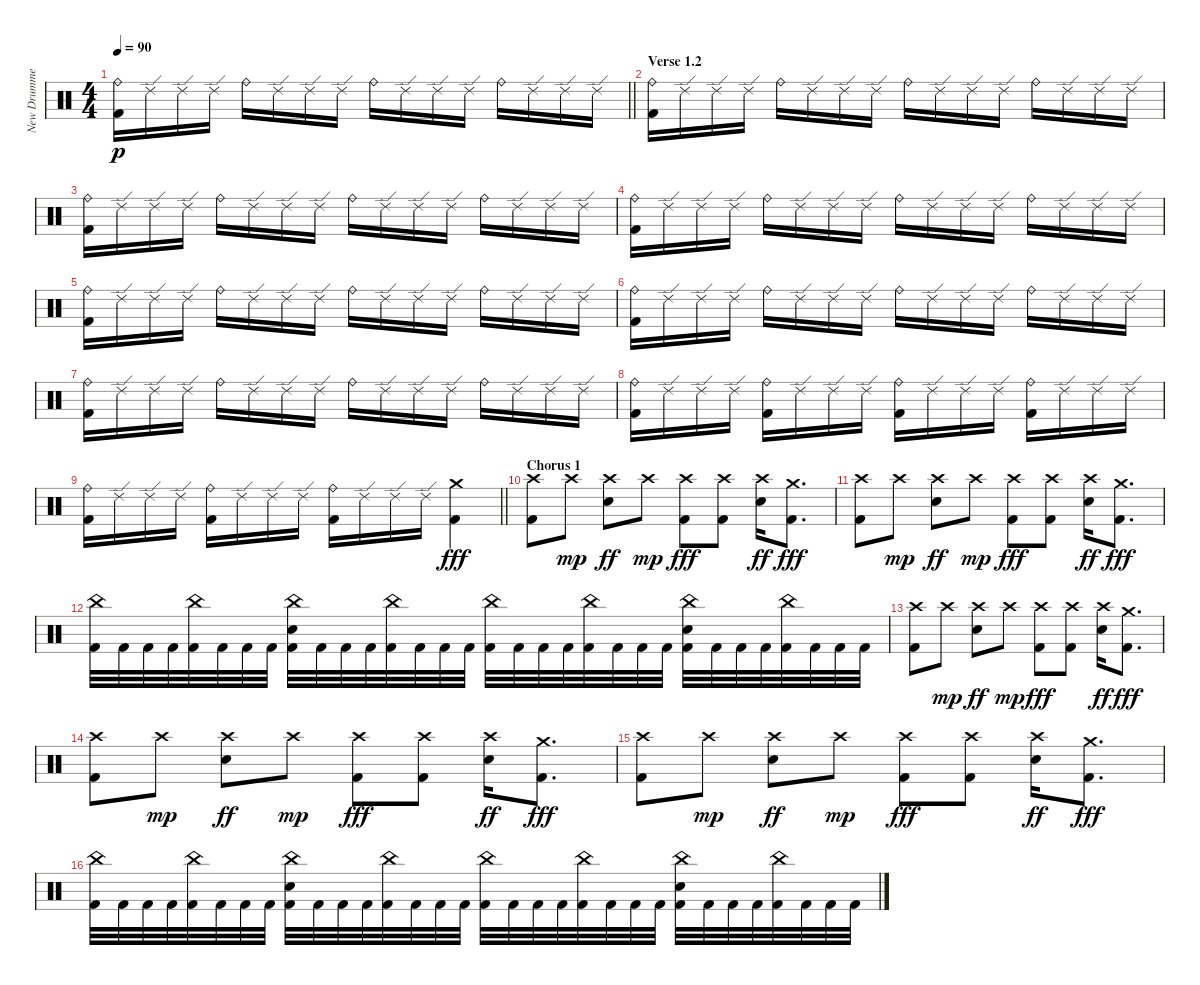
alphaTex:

\track ("New Drummer" "New Drumme") {instrument percussion}
\staff {score}
\articulation defaults
\ts (4 4)
\tempo 90
\clef neutral
\barLineRight lightlight
\ks c
("Ride (bell)" "Kick (hit) 2").16{dy p} "Ride (edge) 2".16 "Ride (edge) 2".16 "Ride (edge) 2".16 "Ride (bell)".16 "Ride (edge) 2".16 "Ride (edge) 2".16 "Ride (edge) 2".16 "Ride (bell)".16 "Ride (edge) 2".16 "Ride (edge) 2".16 "Ride (edge) 2".16 "Ride (bell)".16 "Ride (edge) 2".16 "Ride (edge) 2".16 "Ride (edge) 2".16 |
\section ("" "Verse 1.2")
("Ride (bell)" "Kick (hit) 2").16 "Ride (edge) 2".16 "Ride (edge) 2".16 "Ride (edge) 2".16 "Ride (bell)".16 "Ride (edge) 2".16 "Ride (edge) 2".16 "Ride (edge) 2".16 "Ride (bell)".16 "Ride (edge) 2".16 "Ride (edge) 2".16 "Ride (edge) 2".16 "Ride (bell)".16 "Ride (edge) 2".16 "Ride (edge) 2".16 "Ride (edge) 2".16 |
("Ride (bell)" "Kick (hit) 2").16 "Ride (edge) 2".16 "Ride (edge) 2".16 "Ride (edge) 2".16 "Ride (bell)".16 "Ride (edge) 2".16 "Ride (edge) 2".16 "Ride (edge) 2".16 "Ride (bell)".16 "Ride (edge) 2".16 "Ride (edge) 2".16 "Ride (edge) 2".16 "Ride (bell)".16 "Ride (edge) 2".16 "Ride (edge) 2".16 "Ride (edge) 2".16 |
("Ride (bell)" "Kick (hit) 2").16 "Ride (edge) 2".16 "Ride (edge) 2".16 "Ride (edge) 2".16 "Ride (bell)".16 "Ride (edge) 2".16 "Ride (edge) 2".16 "Ride (edge) 2".16 "Ride (bell)".16 "Ride (edge) 2".16 "Ride (edge) 2".16 "Ride (edge) 2".16 "Ride (bell)".16 "Ride (edge) 2".16 "Ride (edge) 2".16 "Ride (edge) 2".16 |
("Ride (bell)" "Kick (hit) 2").16 "Ride (edge) 2".16 "Ride (edge) 2".16 "Ride (edge) 2".16 "Ride (bell)".16 "Ride (edge) 2".16 "Ride (edge) 2".16 "Ride (edge) 2".16 "Ride (bell)".16 "Ride (edge) 2".16 "Ride (edge) 2".16 "Ride (edge) 2".16 "Ride (bell)".16 "Ride (edge) 2".16 "Ride (edge) 2".16 "Ride (edge) 2".16 |
("Ride (bell)" "Kick (hit) 2").16 "Ride (edge) 2".16 "Ride (edge) 2".16 "Ride (edge) 2".16 "Ride (bell)".16 "Ride (edge) 2".16 "Ride (edge) 2".16 "Ride (edge) 2".16 "Ride (bell)".16 "Ride (edge) 2".16 "Ride (edge) 2".16 "Ride (edge) 2".16 "Ride (bell)".16 "Ride (edge) 2".16 "Ride (edge) 2".16 "Ride (edge) 2".16 |
("Ride (bell)" "Kick (hit) 2").16 "Ride (edge) 2".16 "Ride (edge) 2".16 "Ride (edge) 2".16 "Ride (bell)".16 "Ride (edge) 2".16 "Ride (edge) 2".16 "Ride (edge) 2".16 "Ride (bell)".16 "Ride (edge) 2".16 "Ride (edge) 2".16 "Ride (edge) 2".16 "Ride (bell)".16 "Ride (edge) 2".16 "Ride (edge) 2".16 "Ride (edge) 2".16 |
("Ride (bell)" "Kick (hit) 2").16 "Ride (edge) 2".16 "Ride (edge) 2".16 "Ride (edge) 2".16 ("Ride (bell)" "Kick (hit) 2").16 "Ride (edge) 2".16 "Ride (edge) 2".16 "Ride (edge) 2".16 ("Ride (bell)" "Kick (hit) 2").16 "Ride (edge) 2".16 "Ride (edge) 2".16 "Ride (edge) 2".16 ("Ride (bell)" "Kick (hit) 2").16 "Ride (edge) 2".16 "Ride (edge) 2".16 "Ride (edge) 2".16 |
\barLineRight lightlight
("Ride (bell)" "Kick (hit) 2").16 "Ride (edge) 2".16 "Ride (edge) 2".16 "Ride (edge) 2".16 ("Ride (bell)" "Kick (hit) 2").16 "Ride (edge) 2".16 "Ride (edge) 2".16 "Ride (edge) 2".16 ("Ride (bell)" "Kick (hit) 2").16 "Ride (edge) 2".16 "Ride (edge) 2".16 "Ride (edge) 2".16 ("Crash medium (hit)" "Kick (hit) 2").4{dy fff} |
\section ("" "Chorus 1")
("Crash high (hit)" "Kick (hit) 2").8 "Crash high (hit)".8{dy mp} ("Crash high (hit)" "Electric Snare (hit)").8{dy ff} "Crash high (hit)".8{dy mp} ("Crash high (hit)" "Kick (hit) 2").8{dy fff} ("Crash high (hit)" "Kick (hit) 2").8 ("Crash high (hit)" "Electric Snare (hit)").16{dy ff} ("Crash medium (hit)" "Kick (hit) 2").8{d dy fff} |
("Crash high (hit)" "Kick (hit) 2").8 "Crash high (hit)".8{dy mp} ("Crash high (hit)" "Electric Snare (hit)").8{dy ff} "Crash high (hit)".8{dy mp} ("Crash high (hit)" "Kick (hit) 2").8{dy fff} ("Crash high (hit)" "Kick (hit) 2").8 ("Crash high (hit)" "Electric Snare (hit)").16{dy ff} ("Crash medium (hit)" "Kick (hit) 2").8{d dy fff} |
("China (hit)" "Kick (hit) 2").32 "Kick (hit) 2".32 "Kick (hit) 2".32 "Kick (hit) 2".32 ("China (hit)" "Kick (hit) 2").32 "Kick (hit) 2".32 "Kick (hit) 2".32 "Kick (hit) 2".32 ("China (hit)" "Electric Snare (hit)" "Kick (hit) 2").32 "Kick (hit) 2".32 "Kick (hit) 2".32 "Kick (hit) 2".32 ("China (hit)" "Kick (hit) 2").32 "Kick (hit) 2".32 "Kick (hit) 2".32 "Kick (hit) 2".32 ("China (hit)" "Kick (hit) 2").32 "Kick (hit) 2".32 "Kick (hit) 2".32 "Kick (hit) 2".32 ("China (hit)" "Kick (hit) 2").32 "Kick (hit) 2".32 "Kick (hit) 2".32 "Kick (hit) 2".32 ("China (hit)" "Electric Snare (hit)" "Kick (hit) 2").32 "Kick (hit) 2".32 "Kick (hit) 2".32 "Kick (hit) 2".32 ("China (hit)" "Kick (hit) 2").32 "Kick (hit) 2".32 "Kick (hit) 2".32 "Kick (hit) 2".32 |
("Crash high (hit)" "Kick (hit) 2").8 "Crash high (hit)".8{dy mp} ("Crash high (hit)" "Electric Snare (hit)").8{dy ff} "Crash high (hit)".8{dy mp} ("Crash high (hit)" "Kick (hit) 2").8{dy fff} ("Crash high (hit)" "Kick (hit) 2").8 ("Crash high (hit)" "Electric Snare (hit)").16{dy ff} ("Crash medium (hit)" "Kick (hit) 2").8{d dy fff} |
("Crash high (hit)" "Kick (hit) 2").8 "Crash high (hit)".8{dy mp} ("Crash high (hit)" "Electric Snare (hit)").8{dy ff} "Crash high (hit)".8{dy mp} ("Crash high (hit)" "Kick (hit) 2").8{dy fff} ("Crash high (hit)" "Kick (hit) 2").8 ("Crash high (hit)" "Electric Snare (hit)").16{dy ff} ("Crash medium (hit)" "Kick (hit) 2").8{d dy fff} |
("Crash high (hit)" "Kick (hit) 2").8 "Crash high (hit)".8{dy mp} ("Crash high (hit)" "Electric Snare (hit)").8{dy ff} "Crash high (hit)".8{dy mp} ("Crash high (hit)" "Kick (hit) 2").8{dy fff} ("Crash high (hit)" "Kick (hit) 2").8 ("Crash high (hit)" "Electric Snare (hit)").16{dy ff} ("Crash medium (hit)" "Kick (hit) 2").8{d dy fff} |
("China (hit)" "Kick (hit) 2").32 "Kick (hit) 2".32 "Kick (hit) 2".32 "Kick (hit) 2".32 ("China (hit)" "Kick (hit) 2").32 "Kick (hit) 2".32 "Kick (hit) 2".32 "Kick (hit) 2".32 ("China (hit)" "Electric Snare (hit)" "Kick (hit) 2").32 "Kick (hit) 2".32 "Kick (hit) 2".32 "Kick (hit) 2".32 ("China (hit)" "Kick (hit) 2").32 "Kick (hit) 2".32 "Kick (hit) 2".32 "Kick (hit) 2".32 ("China (hit)" "Kick (hit) 2").32 "Kick (hit) 2".32 "Kick (hit) 2".32 "Kick (hit) 2".32 ("China (hit)" "Kick (hit) 2").32 "Kick (hit) 2".32 "Kick (hit) 2".32 "Kick (hit) 2".32 ("China (hit)" "Electric Snare (hit)" "Kick (hit) 2").32 "Kick (hit) 2".32 "Kick (hit) 2".32 "Kick (hit) 2".32 ("China (hit)" "Kick (hit) 2").32 "Kick (hit) 2".32 "Kick (hit) 2".32 "Kick (hit) 2".32
